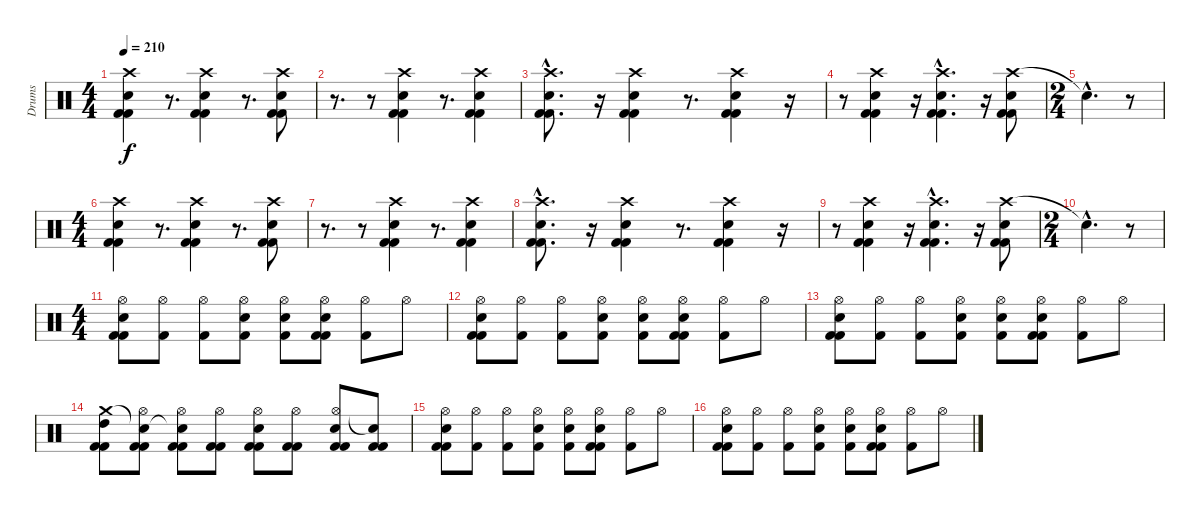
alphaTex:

\track ("Drums" "Drums") {instrument percussion}
\staff {score}
\articulation defaults
\ts (4 4)
\tempo 210
\clef neutral
\ks c
("Crash high (hit)" "Snare (hit) 2" "Kick (hit) 2" "Kick (hit) 2").4{dy f} r.8{d} ("Crash high (hit)" "Snare (hit) 2" "Kick (hit) 2" "Kick (hit) 2").4 r.8{d} ("Crash high (hit)" "Snare (hit) 2" "Kick (hit) 2" "Kick (hit) 2").8 |
r.8{d} r.8 ("Crash high (hit)" "Snare (hit) 2" "Kick (hit) 2" "Kick (hit) 2").4 r.8{d} ("Crash high (hit)" "Snare (hit) 2" "Kick (hit) 2" "Kick (hit) 2").4 |
("Crash high (hit)"{hac} "Snare (hit) 2"{hac} "Kick (hit) 2"{hac} "Kick (hit) 2"{hac}).8{d} r.16 ("Crash high (hit)" "Snare (hit) 2" "Kick (hit) 2" "Kick (hit) 2").4 r.8{d} ("Crash high (hit)" "Snare (hit) 2" "Kick (hit) 2" "Kick (hit) 2").4 r.16 |
r.8 ("Crash high (hit)" "Snare (hit) 2" "Kick (hit) 2" "Kick (hit) 2").4 r.16 ("Crash high (hit)"{hac} "Snare (hit) 2"{hac} "Kick (hit) 2"{hac} "Kick (hit) 2"{hac}).4{d} r.16 ("Crash high (hit)" "Snare (hit) 2" "Kick (hit) 2" "Kick (hit) 2").8 |
\ts (2 4)
"Snare (hit)"{hac t}.4{d} r.8 |
\ts (4 4)
("Crash high (hit)" "Snare (hit) 2" "Kick (hit) 2" "Kick (hit) 2").4 r.8{d} ("Crash high (hit)" "Snare (hit) 2" "Kick (hit) 2" "Kick (hit) 2").4 r.8{d} ("Crash high (hit)" "Snare (hit) 2" "Kick (hit) 2" "Kick (hit) 2").8 |
r.8{d} r.8 ("Crash high (hit)" "Snare (hit) 2" "Kick (hit) 2" "Kick (hit) 2").4 r.8{d} ("Crash high (hit)" "Snare (hit) 2" "Kick (hit) 2" "Kick (hit) 2").4 |
("Crash high (hit)"{hac} "Snare (hit) 2"{hac} "Kick (hit) 2"{hac} "Kick (hit) 2"{hac}).8{d} r.16 ("Crash high (hit)" "Snare (hit) 2" "Kick (hit) 2" "Kick (hit) 2").4 r.8{d} ("Crash high (hit)" "Snare (hit) 2" "Kick (hit) 2" "Kick (hit) 2").4 r.16 |
r.8 ("Crash high (hit)" "Snare (hit) 2" "Kick (hit) 2" "Kick (hit) 2").4 r.16 ("Crash high (hit)"{hac} "Snare (hit) 2"{hac} "Kick (hit) 2"{hac} "Kick (hit) 2"{hac}).4{d} r.16 ("Crash high (hit)" "Snare (hit) 2" "Kick (hit) 2" "Kick (hit) 2").8 |
\ts (2 4)
"Snare (hit)"{hac t}.4{d} r.8 |
\ts (4 4)
("Hi-Hat (open)" "Snare (hit) 2" "Kick (hit) 2" "Kick (hit) 2").8 ("Hi-Hat (open)" "Kick (hit) 2").8 ("Hi-Hat (open)" "Kick (hit) 2").8 ("Hi-Hat (open)" "Electric Snare (hit)" "Kick (hit) 2").8 ("Hi-Hat (open)" "Snare (hit) 2" "Kick (hit) 2").8 ("Hi-Hat (open)" "Snare (hit) 2" "Kick (hit) 2" "Kick (hit) 2").8 ("Hi-Hat (open)" "Kick (hit) 2").8 "Hi-Hat (open)".8 |
("Hi-Hat (open)" "Snare (hit) 2" "Kick (hit) 2" "Kick (hit) 2").8 ("Hi-Hat (open)" "Kick (hit) 2").8 ("Hi-Hat (open)" "Kick (hit) 2").8 ("Hi-Hat (open)" "Electric Snare (hit)" "Kick (hit) 2").8 ("Hi-Hat (open)" "Snare (hit) 2" "Kick (hit) 2").8 ("Hi-Hat (open)" "Snare (hit) 2" "Kick (hit) 2" "Kick (hit) 2").8 ("Hi-Hat (open)" "Kick (hit) 2").8 "Hi-Hat (open)".8 |
("Hi-Hat (open)" "Snare (hit) 2" "Kick (hit) 2" "Kick (hit) 2").8 ("Hi-Hat (open)" "Kick (hit) 2").8 ("Hi-Hat (open)" "Kick (hit) 2").8 ("Hi-Hat (open)" "Electric Snare (hit)" "Kick (hit) 2").8 ("Hi-Hat (open)" "Snare (hit) 2" "Kick (hit) 2").8 ("Hi-Hat (open)" "Snare (hit) 2" "Kick (hit) 2" "Kick (hit) 2").8 ("Hi-Hat (open)" "Kick (hit) 2").8 "Hi-Hat (open)".8 |
("Crash medium (hit)" "High Tom (hit)" "Kick (hit) 2" "Kick (hit) 2").8 ("Snare (hit)"{t} "Hi-Hat (open)" "Kick (hit) 2" "Kick (hit) 2").8 ("Snare (hit)"{t} "Hi-Hat (open)" "Kick (hit) 2" "Kick (hit) 2").8 ("Hi-Hat (open)" "Kick (hit) 2" "Kick (hit) 2").8 ("Hi-Hat (open)" "Electric Snare (hit)" "Kick (hit) 2" "Kick (hit) 2").8 ("Hi-Hat (open)" "Kick (hit) 2" "Kick (hit) 2").8 ("Hi-Hat (open)" "Electric Snare (hit)" "Kick (hit) 2" "Kick (hit) 2").8 ("Snare (hit)"{t} "Kick (hit) 2" "Kick (hit) 2").8 |
("Hi-Hat (open)" "Snare (hit) 2" "Kick (hit) 2" "Kick (hit) 2").8 ("Hi-Hat (open)" "Kick (hit) 2").8 ("Hi-Hat (open)" "Kick (hit) 2").8 ("Hi-Hat (open)" "Electric Snare (hit)" "Kick (hit) 2").8 ("Hi-Hat (open)" "Snare (hit) 2" "Kick (hit) 2").8 ("Hi-Hat (open)" "Snare (hit) 2" "Kick (hit) 2" "Kick (hit) 2").8 ("Hi-Hat (open)" "Kick (hit) 2").8 "Hi-Hat (open)".8 |
("Hi-Hat (open)" "Snare (hit) 2" "Kick (hit) 2" "Kick (hit) 2").8 ("Hi-Hat (open)" "Kick (hit) 2").8 ("Hi-Hat (open)" "Kick (hit) 2").8 ("Hi-Hat (open)" "Electric Snare (hit)" "Kick (hit) 2").8 ("Hi-Hat (open)" "Snare (hit) 2" "Kick (hit) 2").8 ("Hi-Hat (open)" "Snare (hit) 2" "Kick (hit) 2" "Kick (hit) 2").8 ("Hi-Hat (open)" "Kick (hit) 2").8 "Hi-Hat (open)".8
